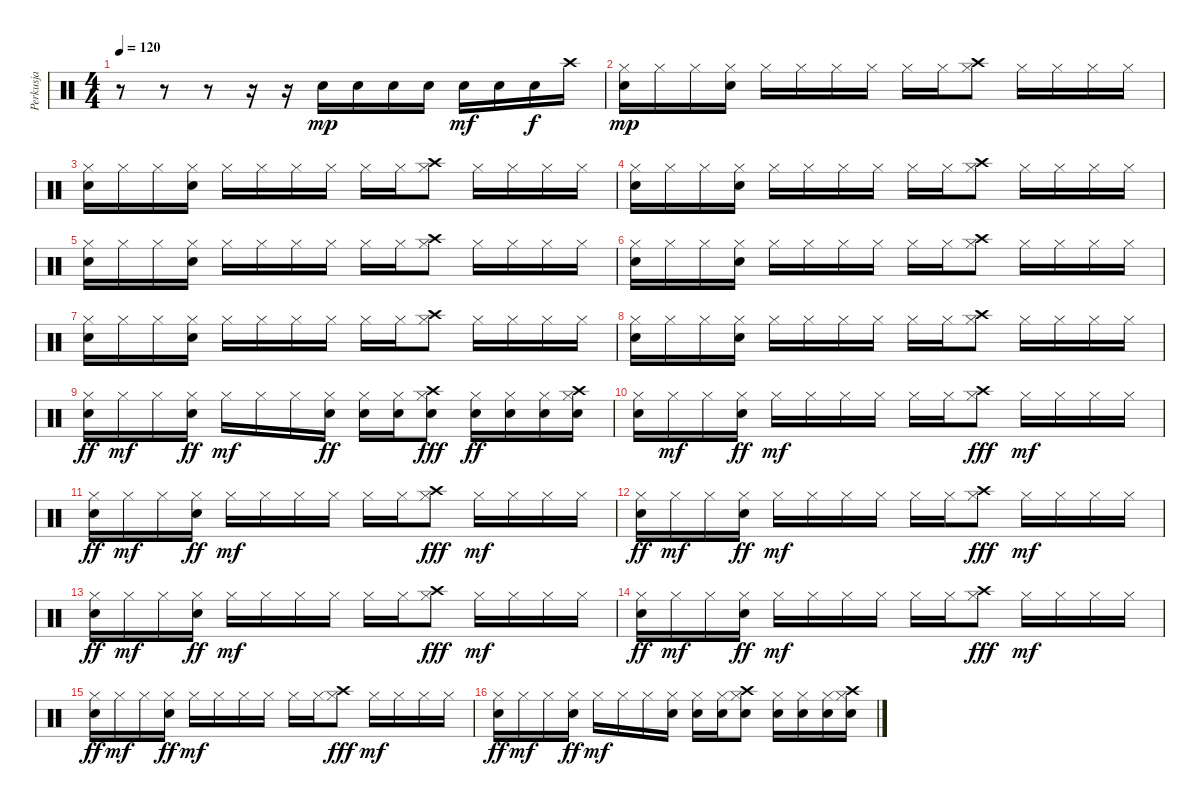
\track ("Perkusja" "Perkusja") {instrument percussion}
\staff {score}
\articulation defaults
\ts (4 4)
\tempo 120
\clef neutral
\ks c
r.8{dy ff} r.8 r.8 r.16 r.16 "Snare (hit) 2".16{dy mp} "Snare (hit) 2".16 "Snare (hit) 2".16 "Snare (hit) 2".16 "Snare (hit) 2".16{dy mf} "Snare (hit) 2".16 "Snare (hit) 2".16{dy f} "Crash high (hit)".16 |
("Hi-Hat (closed)" "Snare (hit) 2").16{dy mp} "Hi-Hat (closed)".16 "Hi-Hat (closed)".16 ("Hi-Hat (closed)" "Snare (hit) 2").16 "Hi-Hat (closed)".16 "Hi-Hat (closed)".16 "Hi-Hat (closed)".16 "Hi-Hat (closed)".16 "Hi-Hat (closed)".16 "Hi-Hat (closed)".16 ("Hi-Hat (closed)" "Crash high (hit)").8 "Hi-Hat (closed)".16 "Hi-Hat (closed)".16 "Hi-Hat (closed)".16 "Hi-Hat (closed)".16 |
("Hi-Hat (closed)" "Snare (hit) 2").16 "Hi-Hat (closed)".16 "Hi-Hat (closed)".16 ("Hi-Hat (closed)" "Snare (hit) 2").16 "Hi-Hat (closed)".16 "Hi-Hat (closed)".16 "Hi-Hat (closed)".16 "Hi-Hat (closed)".16 "Hi-Hat (closed)".16 "Hi-Hat (closed)".16 ("Hi-Hat (closed)" "Crash high (hit)").8 "Hi-Hat (closed)".16 "Hi-Hat (closed)".16 "Hi-Hat (closed)".16 "Hi-Hat (closed)".16 |
("Hi-Hat (closed)" "Snare (hit) 2").16 "Hi-Hat (closed)".16 "Hi-Hat (closed)".16 ("Hi-Hat (closed)" "Snare (hit) 2").16 "Hi-Hat (closed)".16 "Hi-Hat (closed)".16 "Hi-Hat (closed)".16 "Hi-Hat (closed)".16 "Hi-Hat (closed)".16 "Hi-Hat (closed)".16 ("Hi-Hat (closed)" "Crash high (hit)").8 "Hi-Hat (closed)".16 "Hi-Hat (closed)".16 "Hi-Hat (closed)".16 "Hi-Hat (closed)".16 |
("Hi-Hat (closed)" "Snare (hit) 2").16 "Hi-Hat (closed)".16 "Hi-Hat (closed)".16 ("Hi-Hat (closed)" "Snare (hit) 2").16 "Hi-Hat (closed)".16 "Hi-Hat (closed)".16 "Hi-Hat (closed)".16 "Hi-Hat (closed)".16 "Hi-Hat (closed)".16 "Hi-Hat (closed)".16 ("Hi-Hat (closed)" "Crash high (hit)").8 "Hi-Hat (closed)".16 "Hi-Hat (closed)".16 "Hi-Hat (closed)".16 "Hi-Hat (closed)".16 |
("Hi-Hat (closed)" "Snare (hit) 2").16 "Hi-Hat (closed)".16 "Hi-Hat (closed)".16 ("Hi-Hat (closed)" "Snare (hit) 2").16 "Hi-Hat (closed)".16 "Hi-Hat (closed)".16 "Hi-Hat (closed)".16 "Hi-Hat (closed)".16 "Hi-Hat (closed)".16 "Hi-Hat (closed)".16 ("Hi-Hat (closed)" "Crash high (hit)").8 "Hi-Hat (closed)".16 "Hi-Hat (closed)".16 "Hi-Hat (closed)".16 "Hi-Hat (closed)".16 |
("Hi-Hat (closed)" "Snare (hit) 2").16 "Hi-Hat (closed)".16 "Hi-Hat (closed)".16 ("Hi-Hat (closed)" "Snare (hit) 2").16 "Hi-Hat (closed)".16 "Hi-Hat (closed)".16 "Hi-Hat (closed)".16 "Hi-Hat (closed)".16 "Hi-Hat (closed)".16 "Hi-Hat (closed)".16 ("Hi-Hat (closed)" "Crash high (hit)").8 "Hi-Hat (closed)".16 "Hi-Hat (closed)".16 "Hi-Hat (closed)".16 "Hi-Hat (closed)".16 |
("Hi-Hat (closed)" "Snare (hit) 2").16 "Hi-Hat (closed)".16 "Hi-Hat (closed)".16 ("Hi-Hat (closed)" "Snare (hit) 2").16 "Hi-Hat (closed)".16 "Hi-Hat (closed)".16 "Hi-Hat (closed)".16 "Hi-Hat (closed)".16 "Hi-Hat (closed)".16 "Hi-Hat (closed)".16 ("Hi-Hat (closed)" "Crash high (hit)").8 "Hi-Hat (closed)".16 "Hi-Hat (closed)".16 "Hi-Hat (closed)".16 "Hi-Hat (closed)".16 |
("Hi-Hat (closed)" "Snare (hit) 2").16{dy ff} "Hi-Hat (closed)".16{dy mf} "Hi-Hat (closed)".16 ("Hi-Hat (closed)" "Snare (hit) 2").16{dy ff} "Hi-Hat (closed)".16{dy mf} "Hi-Hat (closed)".16 "Hi-Hat (closed)".16 ("Hi-Hat (closed)" "Snare (hit) 2").16{dy ff} ("Hi-Hat (closed)" "Snare (hit) 2").16 ("Hi-Hat (closed)" "Snare (hit) 2").16 ("Hi-Hat (closed)" "Snare (hit) 2" "Crash high (hit)").8{dy fff} ("Hi-Hat (closed)" "Snare (hit) 2").16{dy ff} ("Hi-Hat (closed)" "Snare (hit) 2").16 ("Hi-Hat (closed)" "Snare (hit) 2").16 ("Hi-Hat (closed)" "Snare (hit) 2" "Crash high (hit)").16 |
("Hi-Hat (closed)" "Snare (hit) 2").16 "Hi-Hat (closed)".16{dy mf} "Hi-Hat (closed)".16 ("Hi-Hat (closed)" "Snare (hit) 2").16{dy ff} "Hi-Hat (closed)".16{dy mf} "Hi-Hat (closed)".16 "Hi-Hat (closed)".16 "Hi-Hat (closed)".16 "Hi-Hat (closed)".16 "Hi-Hat (closed)".16 ("Hi-Hat (closed)" "Crash high (hit)").8{dy fff} "Hi-Hat (closed)".16{dy mf} "Hi-Hat (closed)".16 "Hi-Hat (closed)".16 "Hi-Hat (closed)".16 |
("Hi-Hat (closed)" "Snare (hit) 2").16{dy ff} "Hi-Hat (closed)".16{dy mf} "Hi-Hat (closed)".16 ("Hi-Hat (closed)" "Snare (hit) 2").16{dy ff} "Hi-Hat (closed)".16{dy mf} "Hi-Hat (closed)".16 "Hi-Hat (closed)".16 "Hi-Hat (closed)".16 "Hi-Hat (closed)".16 "Hi-Hat (closed)".16 ("Hi-Hat (closed)" "Crash high (hit)").8{dy fff} "Hi-Hat (closed)".16{dy mf} "Hi-Hat (closed)".16 "Hi-Hat (closed)".16 "Hi-Hat (closed)".16 |
("Hi-Hat (closed)" "Snare (hit) 2").16{dy ff} "Hi-Hat (closed)".16{dy mf} "Hi-Hat (closed)".16 ("Hi-Hat (closed)" "Snare (hit) 2").16{dy ff} "Hi-Hat (closed)".16{dy mf} "Hi-Hat (closed)".16 "Hi-Hat (closed)".16 "Hi-Hat (closed)".16 "Hi-Hat (closed)".16 "Hi-Hat (closed)".16 ("Hi-Hat (closed)" "Crash high (hit)").8{dy fff} "Hi-Hat (closed)".16{dy mf} "Hi-Hat (closed)".16 "Hi-Hat (closed)".16 "Hi-Hat (closed)".16 |
("Hi-Hat (closed)" "Snare (hit) 2").16{dy ff} "Hi-Hat (closed)".16{dy mf} "Hi-Hat (closed)".16 ("Hi-Hat (closed)" "Snare (hit) 2").16{dy ff} "Hi-Hat (closed)".16{dy mf} "Hi-Hat (closed)".16 "Hi-Hat (closed)".16 "Hi-Hat (closed)".16 "Hi-Hat (closed)".16 "Hi-Hat (closed)".16 ("Hi-Hat (closed)" "Crash high (hit)").8{dy fff} "Hi-Hat (closed)".16{dy mf} "Hi-Hat (closed)".16 "Hi-Hat (closed)".16 "Hi-Hat (closed)".16 |
("Hi-Hat (closed)" "Snare (hit) 2").16{dy ff} "Hi-Hat (closed)".16{dy mf} "Hi-Hat (closed)".16 ("Hi-Hat (closed)" "Snare (hit) 2").16{dy ff} "Hi-Hat (closed)".16{dy mf} "Hi-Hat (closed)".16 "Hi-Hat (closed)".16 "Hi-Hat (closed)".16 "Hi-Hat (closed)".16 "Hi-Hat (closed)".16 ("Hi-Hat (closed)" "Crash high (hit)").8{dy fff} "Hi-Hat (closed)".16{dy mf} "Hi-Hat (closed)".16 "Hi-Hat (closed)".16 "Hi-Hat (closed)".16 |
("Hi-Hat (closed)" "Snare (hit) 2").16{dy ff} "Hi-Hat (closed)".16{dy mf} "Hi-Hat (closed)".16 ("Hi-Hat (closed)" "Snare (hit) 2").16{dy ff} "Hi-Hat (closed)".16{dy mf} "Hi-Hat (closed)".16 "Hi-Hat (closed)".16 "Hi-Hat (closed)".16 "Hi-Hat (closed)".16 "Hi-Hat (closed)".16 ("Hi-Hat (closed)" "Crash high (hit)").8{dy fff} "Hi-Hat (closed)".16{dy mf} "Hi-Hat (closed)".16 "Hi-Hat (closed)".16 "Hi-Hat (closed)".16 |
("Hi-Hat (closed)" "Snare (hit) 2").16{dy ff} "Hi-Hat (closed)".16{dy mf} "Hi-Hat (closed)".16 ("Hi-Hat (closed)" "Snare (hit) 2").16{dy ff} "Hi-Hat (closed)".16{dy mf} "Hi-Hat (closed)".16 "Hi-Hat (closed)".16 ("Hi-Hat (closed)" "Snare (hit) 2").16 ("Hi-Hat (closed)" "Snare (hit) 2").16 ("Hi-Hat (closed)" "Snare (hit) 2").16 ("Hi-Hat (closed)" "Snare (hit) 2" "Crash high (hit)").8 ("Hi-Hat (closed)" "Snare (hit) 2").16 ("Hi-Hat (closed)" "Snare (hit) 2").16 ("Hi-Hat (closed)" "Snare (hit) 2").16 ("Hi-Hat (closed)" "Snare (hit) 2" "Crash high (hit)").16
